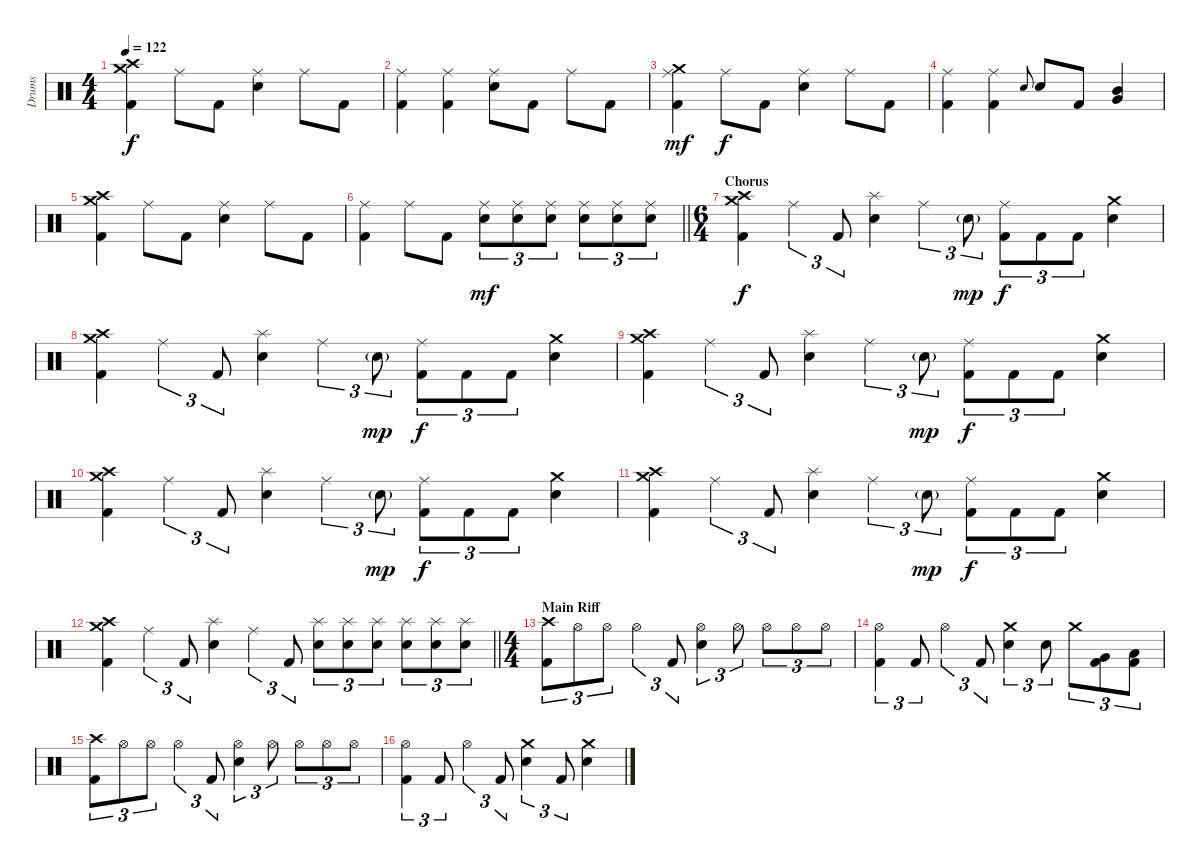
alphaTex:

\track ("Drums" "Drums") {instrument percussion}
\staff {score}
\articulation defaults
\ts (4 4)
\tempo 122
\clef neutral
\ks c
("Crash high (hit)" "Crash medium (hit)" "Kick (hit) 2").4{dy f} "Ride (middle)".8 "Kick (hit) 2".8 ("Ride (middle)" "Electric Snare (hit)").4 "Ride (middle)".8 "Kick (hit) 2".8 |
("Ride (middle)" "Kick (hit) 2").4 ("Ride (middle)" "Kick (hit) 2").4 ("Ride (middle)" "Electric Snare (hit)").8 "Kick (hit) 2".8 "Ride (middle)".8 "Kick (hit) 2".8 |
("Crash medium (hit)" "Ride (middle)" "Kick (hit) 2").4{dy mf} "Ride (middle)".8{dy f} "Kick (hit) 2".8 ("Ride (middle)" "Electric Snare (hit)").4 "Ride (middle)".8 "Kick (hit) 2".8 |
("Ride (middle)" "Kick (hit) 2").4 ("Ride (middle)" "Kick (hit) 2").4 "Electric Snare (hit)".8{gr onbeat} "Electric Snare (hit)".8 "Kick (hit) 2".8 ("Mid Tom (hit)" "Very Low Tom (hit)").4{bu 30} |
("Crash high (hit)" "Crash medium (hit)" "Kick (hit) 2").4 "Ride (middle)".8 "Kick (hit) 2".8 ("Ride (middle)" "Electric Snare (hit)").4 "Ride (middle)".8 "Kick (hit) 2".8 |
\barLineRight lightlight
("Ride (middle)" "Kick (hit) 2").4 "Ride (middle)".8 "Kick (hit) 2".8 ("Ride (middle)" "Electric Snare (hit)").8{tu (3 2) dy mf} ("Ride (middle)" "Electric Snare (hit)").8{tu (3 2)} ("Ride (middle)" "Electric Snare (hit)").8{tu (3 2)} ("Ride (middle)" "Electric Snare (hit)").8{tu (3 2)} ("Ride (middle)" "Electric Snare (hit)").8{tu (3 2)} ("Ride (middle)" "Electric Snare (hit)").8{tu (3 2)} |
\ts (6 4)
\section ("" "Chorus")
("Crash high (hit)" "Crash medium (hit)" "Kick (hit) 2").4{dy f} "Ride (middle)".4{tu (3 2)} "Kick (hit) 2".8{tu (3 2)} ("Splash (hit)" "Electric Snare (hit)").4 "Ride (middle)".4{tu (3 2)} "Electric Snare (hit)"{g}.8{tu (3 2) dy mp} ("Ride (middle)" "Kick (hit) 2").8{tu (3 2) dy f} "Kick (hit) 2".8{tu (3 2)} "Kick (hit) 2".8{tu (3 2)} ("Crash medium (hit)" "Electric Snare (hit)").4 |
("Crash high (hit)" "Crash medium (hit)" "Kick (hit) 2").4 "Ride (middle)".4{tu (3 2)} "Kick (hit) 2".8{tu (3 2)} ("Splash (hit)" "Electric Snare (hit)").4 "Ride (middle)".4{tu (3 2)} "Electric Snare (hit)"{g}.8{tu (3 2) dy mp} ("Ride (middle)" "Kick (hit) 2").8{tu (3 2) dy f} "Kick (hit) 2".8{tu (3 2)} "Kick (hit) 2".8{tu (3 2)} ("Crash medium (hit)" "Electric Snare (hit)").4 |
("Crash high (hit)" "Crash medium (hit)" "Kick (hit) 2").4 "Ride (middle)".4{tu (3 2)} "Kick (hit) 2".8{tu (3 2)} ("Splash (hit)" "Electric Snare (hit)").4 "Ride (middle)".4{tu (3 2)} "Electric Snare (hit)"{g}.8{tu (3 2) dy mp} ("Ride (middle)" "Kick (hit) 2").8{tu (3 2) dy f} "Kick (hit) 2".8{tu (3 2)} "Kick (hit) 2".8{tu (3 2)} ("Crash medium (hit)" "Electric Snare (hit)").4 |
("Crash high (hit)" "Crash medium (hit)" "Kick (hit) 2").4 "Ride (middle)".4{tu (3 2)} "Kick (hit) 2".8{tu (3 2)} ("Splash (hit)" "Electric Snare (hit)").4 "Ride (middle)".4{tu (3 2)} "Electric Snare (hit)"{g}.8{tu (3 2) dy mp} ("Ride (middle)" "Kick (hit) 2").8{tu (3 2) dy f} "Kick (hit) 2".8{tu (3 2)} "Kick (hit) 2".8{tu (3 2)} ("Crash medium (hit)" "Electric Snare (hit)").4 |
("Crash high (hit)" "Crash medium (hit)" "Kick (hit) 2").4 "Ride (middle)".4{tu (3 2)} "Kick (hit) 2".8{tu (3 2)} ("Splash (hit)" "Electric Snare (hit)").4 "Ride (middle)".4{tu (3 2)} "Electric Snare (hit)"{g}.8{tu (3 2) dy mp} ("Ride (middle)" "Kick (hit) 2").8{tu (3 2) dy f} "Kick (hit) 2".8{tu (3 2)} "Kick (hit) 2".8{tu (3 2)} ("Crash medium (hit)" "Electric Snare (hit)").4 |
\barLineRight lightlight
("Crash high (hit)" "Crash medium (hit)" "Kick (hit) 2").4 "Ride (middle)".4{tu (3 2)} "Kick (hit) 2".8{tu (3 2)} ("Splash (hit)" "Electric Snare (hit)").4 "Ride (middle)".4{tu (3 2)} "Kick (hit) 2".8{tu (3 2)} ("Splash (hit)" "Electric Snare (hit)").8{tu (3 2)} ("Splash (hit)" "Electric Snare (hit)").8{tu (3 2)} ("Splash (hit)" "Electric Snare (hit)").8{tu (3 2)} ("Splash (hit)" "Electric Snare (hit)").8{tu (3 2)} ("Splash (hit)" "Electric Snare (hit)").8{tu (3 2)} ("Splash (hit)" "Electric Snare (hit)").8{tu (3 2)} |
\ts (4 4)
\section ("" "Main Riff")
("Crash high (hit)" "Kick (hit) 2").8{tu (3 2)} "Hi-Hat (open)".8{tu (3 2)} "Hi-Hat (open)".8{tu (3 2)} "Hi-Hat (open)".4{tu (3 2)} "Kick (hit) 2".8{tu (3 2)} ("Hi-Hat (open)" "Electric Snare (hit)").4{tu (3 2)} "Hi-Hat (open)".8{tu (3 2)} "Hi-Hat (open)".8{tu (3 2)} "Hi-Hat (open)".8{tu (3 2)} "Hi-Hat (open)".8{tu (3 2)} |
("Hi-Hat (open)" "Kick (hit) 2").4{tu (3 2)} "Kick (hit) 2".8{tu (3 2)} "Hi-Hat (open)".4{tu (3 2)} "Kick (hit) 2".8{tu (3 2)} ("Crash medium (hit)" "Electric Snare (hit)").4{tu (3 2)} "Electric Snare (hit)".8{tu (3 2)} "Crash medium (hit)".8{tu (3 2)} ("Very Low Tom (hit)" "Kick (hit) 2").8{tu (3 2)} ("Low Floor Tom (hit)" "Kick (hit) 2").8{tu (3 2)} |
("Crash high (hit)" "Kick (hit) 2").8{tu (3 2)} "Hi-Hat (open)".8{tu (3 2)} "Hi-Hat (open)".8{tu (3 2)} "Hi-Hat (open)".4{tu (3 2)} "Kick (hit) 2".8{tu (3 2)} ("Hi-Hat (open)" "Electric Snare (hit)").4{tu (3 2)} "Hi-Hat (open)".8{tu (3 2)} "Hi-Hat (open)".8{tu (3 2)} "Hi-Hat (open)".8{tu (3 2)} "Hi-Hat (open)".8{tu (3 2)} |
("Hi-Hat (open)" "Kick (hit) 2").4{tu (3 2)} "Kick (hit) 2".8{tu (3 2)} "Hi-Hat (open)".4{tu (3 2)} "Kick (hit) 2".8{tu (3 2)} ("Crash medium (hit)" "Electric Snare (hit)").4{tu (3 2)} "Kick (hit) 2".8{tu (3 2)} ("Crash medium (hit)" "Electric Snare (hit)").4
